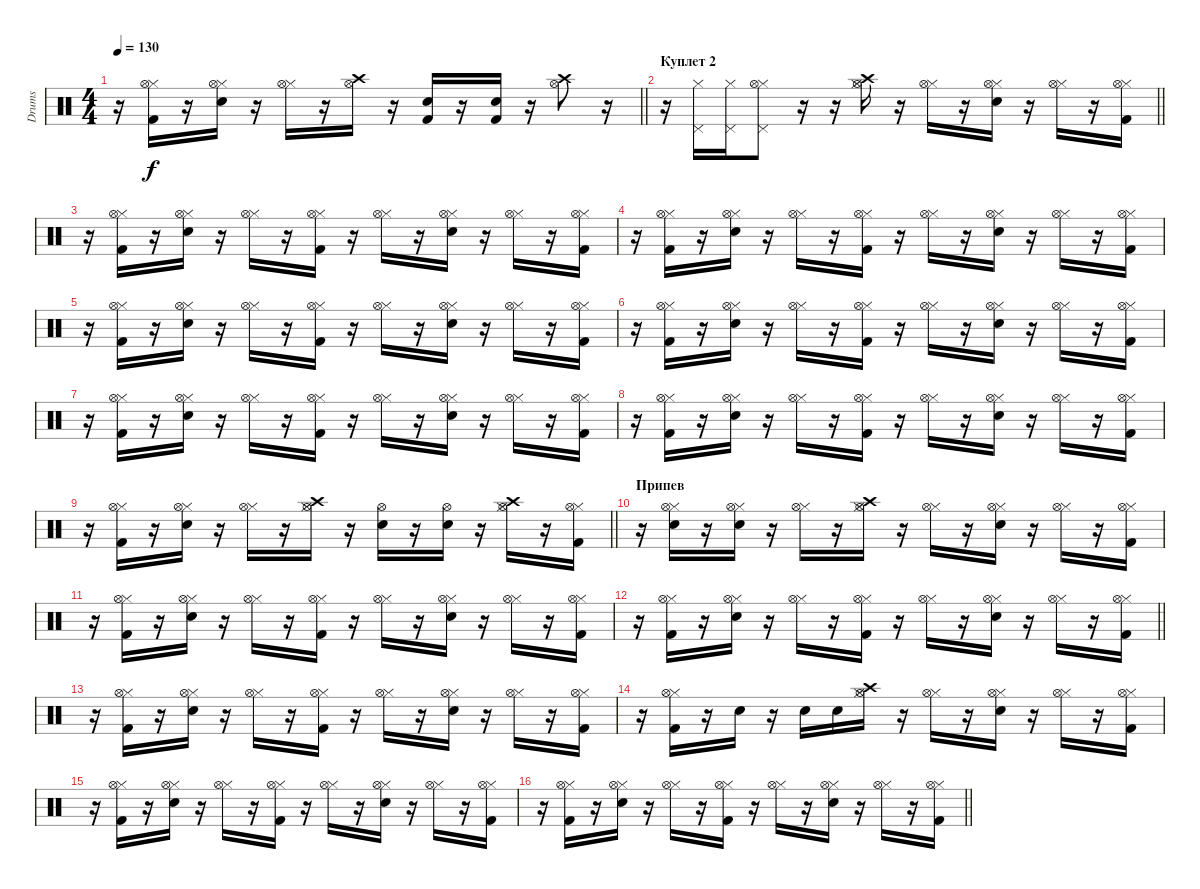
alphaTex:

\track ("Drums" "Drums") {instrument percussion}
\staff {score}
\articulation defaults
\ts (4 4)
\tempo 130
\clef neutral
\barLineRight lightlight
\ks c
r.16{dy f} ("Kick (hit) 2" "Hi-Hat (closed)" "Hi-Hat (open)").16 r.16 ("Snare (hit) 2" "Hi-Hat (closed)" "Hi-Hat (open)").16 r.16 ("Hi-Hat (closed)" "Hi-Hat (open)").16 r.16 ("Crash high (hit)" "Hi-Hat (open)").16 r.16 ("Snare (hit) 2" "Kick (hit) 2").16 r.16 ("Snare (hit) 2" "Kick (hit) 2").16 r.16 ("Crash high (hit)" "Hi-Hat (open)").8 r.16 |
\section ("" "Куплет 2")
\barLineRight lightlight
r.16 ("Hi-Hat (closed)" "Pedal Hi-Hat (hit)").16 ("Hi-Hat (closed)" "Pedal Hi-Hat (hit)").16 ("Pedal Hi-Hat (hit)" "Hi-Hat (closed)" "Hi-Hat (open)").8 r.16 r.16 ("Crash high (hit)" "Hi-Hat (closed)" "Hi-Hat (open)").16 r.16 ("Hi-Hat (closed)" "Hi-Hat (open)").16 r.16 ("Snare (hit) 2" "Hi-Hat (closed)" "Hi-Hat (open)").16 r.16 ("Hi-Hat (closed)" "Hi-Hat (open)").16 r.16 ("Kick (hit) 2" "Hi-Hat (closed)" "Hi-Hat (open)").16 |
\section ("" "")
r.16 ("Kick (hit) 2" "Hi-Hat (closed)" "Hi-Hat (open)").16 r.16 ("Snare (hit) 2" "Hi-Hat (closed)" "Hi-Hat (open)").16 r.16 ("Hi-Hat (closed)" "Hi-Hat (open)").16 r.16 ("Kick (hit) 2" "Hi-Hat (closed)" "Hi-Hat (open)").16 r.16 ("Hi-Hat (closed)" "Hi-Hat (open)").16 r.16 ("Snare (hit) 2" "Hi-Hat (closed)" "Hi-Hat (open)").16 r.16 ("Hi-Hat (closed)" "Hi-Hat (open)").16 r.16 ("Kick (hit) 2" "Hi-Hat (closed)" "Hi-Hat (open)").16 |
r.16 ("Kick (hit) 2" "Hi-Hat (closed)" "Hi-Hat (open)").16 r.16 ("Snare (hit) 2" "Hi-Hat (closed)" "Hi-Hat (open)").16 r.16 ("Hi-Hat (closed)" "Hi-Hat (open)").16 r.16 ("Kick (hit) 2" "Hi-Hat (closed)" "Hi-Hat (open)").16 r.16 ("Hi-Hat (closed)" "Hi-Hat (open)").16 r.16 ("Snare (hit) 2" "Hi-Hat (closed)" "Hi-Hat (open)").16 r.16 ("Hi-Hat (closed)" "Hi-Hat (open)").16 r.16 ("Kick (hit) 2" "Hi-Hat (closed)" "Hi-Hat (open)").16 |
r.16 ("Kick (hit) 2" "Hi-Hat (closed)" "Hi-Hat (open)").16 r.16 ("Snare (hit) 2" "Hi-Hat (closed)" "Hi-Hat (open)").16 r.16 ("Hi-Hat (closed)" "Hi-Hat (open)").16 r.16 ("Kick (hit) 2" "Hi-Hat (closed)" "Hi-Hat (open)").16 r.16 ("Hi-Hat (closed)" "Hi-Hat (open)").16 r.16 ("Snare (hit) 2" "Hi-Hat (closed)" "Hi-Hat (open)").16 r.16 ("Hi-Hat (closed)" "Hi-Hat (open)").16 r.16 ("Kick (hit) 2" "Hi-Hat (closed)" "Hi-Hat (open)").16 |
r.16 ("Kick (hit) 2" "Hi-Hat (closed)" "Hi-Hat (open)").16 r.16 ("Snare (hit) 2" "Hi-Hat (closed)" "Hi-Hat (open)").16 r.16 ("Hi-Hat (closed)" "Hi-Hat (open)").16 r.16 ("Kick (hit) 2" "Hi-Hat (closed)" "Hi-Hat (open)").16 r.16 ("Hi-Hat (closed)" "Hi-Hat (open)").16 r.16 ("Snare (hit) 2" "Hi-Hat (closed)" "Hi-Hat (open)").16 r.16 ("Hi-Hat (closed)" "Hi-Hat (open)").16 r.16 ("Kick (hit) 2" "Hi-Hat (closed)" "Hi-Hat (open)").16 |
r.16 ("Kick (hit) 2" "Hi-Hat (closed)" "Hi-Hat (open)").16 r.16 ("Snare (hit) 2" "Hi-Hat (closed)" "Hi-Hat (open)").16 r.16 ("Hi-Hat (closed)" "Hi-Hat (open)").16 r.16 ("Kick (hit) 2" "Hi-Hat (closed)" "Hi-Hat (open)").16 r.16 ("Hi-Hat (closed)" "Hi-Hat (open)").16 r.16 ("Snare (hit) 2" "Hi-Hat (closed)" "Hi-Hat (open)").16 r.16 ("Hi-Hat (closed)" "Hi-Hat (open)").16 r.16 ("Kick (hit) 2" "Hi-Hat (closed)" "Hi-Hat (open)").16 |
r.16 ("Kick (hit) 2" "Hi-Hat (closed)" "Hi-Hat (open)").16 r.16 ("Snare (hit) 2" "Hi-Hat (closed)" "Hi-Hat (open)").16 r.16 ("Hi-Hat (closed)" "Hi-Hat (open)").16 r.16 ("Kick (hit) 2" "Hi-Hat (closed)" "Hi-Hat (open)").16 r.16 ("Hi-Hat (closed)" "Hi-Hat (open)").16 r.16 ("Snare (hit) 2" "Hi-Hat (closed)" "Hi-Hat (open)").16 r.16 ("Hi-Hat (closed)" "Hi-Hat (open)").16 r.16 ("Kick (hit) 2" "Hi-Hat (closed)" "Hi-Hat (open)").16 |
\barLineRight lightlight
r.16 ("Kick (hit) 2" "Hi-Hat (closed)" "Hi-Hat (open)").16 r.16 ("Snare (hit) 2" "Hi-Hat (closed)" "Hi-Hat (open)").16 r.16 ("Hi-Hat (closed)" "Hi-Hat (open)").16 r.16 ("Crash high (hit)" "Hi-Hat (closed)" "Hi-Hat (open)").16 r.16 ("Snare (hit) 2" "Hi-Hat (open)").16 r.16 ("Snare (hit) 2" "Hi-Hat (open)").16 r.16 ("Crash high (hit)" "Hi-Hat (closed)" "Hi-Hat (open)").16 r.16 ("Kick (hit) 2" "Hi-Hat (closed)" "Hi-Hat (open)").16 |
\section ("" "Припев")
r.16 ("Snare (hit) 2" "Hi-Hat (closed)" "Hi-Hat (open)").16 r.16 ("Snare (hit) 2" "Hi-Hat (closed)" "Hi-Hat (open)").16 r.16 ("Hi-Hat (closed)" "Hi-Hat (open)").16 r.16 ("Crash high (hit)" "Hi-Hat (closed)" "Hi-Hat (open)").16 r.16 ("Hi-Hat (closed)" "Hi-Hat (open)").16 r.16 ("Snare (hit) 2" "Hi-Hat (closed)" "Hi-Hat (open)").16 r.16 ("Hi-Hat (closed)" "Hi-Hat (open)").16 r.16 ("Kick (hit) 2" "Hi-Hat (closed)" "Hi-Hat (open)").16 |
r.16 ("Kick (hit) 2" "Hi-Hat (closed)" "Hi-Hat (open)").16 r.16 ("Snare (hit) 2" "Hi-Hat (closed)" "Hi-Hat (open)").16 r.16 ("Hi-Hat (closed)" "Hi-Hat (open)").16 r.16 ("Kick (hit) 2" "Hi-Hat (closed)" "Hi-Hat (open)").16 r.16 ("Hi-Hat (closed)" "Hi-Hat (open)").16 r.16 ("Snare (hit) 2" "Hi-Hat (closed)" "Hi-Hat (open)").16 r.16 ("Hi-Hat (closed)" "Hi-Hat (open)").16 r.16 ("Kick (hit) 2" "Hi-Hat (closed)" "Hi-Hat (open)").16 |
\barLineRight lightlight
r.16 ("Kick (hit) 2" "Hi-Hat (closed)" "Hi-Hat (open)").16 r.16 ("Snare (hit) 2" "Hi-Hat (closed)" "Hi-Hat (open)").16 r.16 ("Hi-Hat (closed)" "Hi-Hat (open)").16 r.16 ("Kick (hit) 2" "Hi-Hat (closed)" "Hi-Hat (open)").16 r.16 ("Hi-Hat (closed)" "Hi-Hat (open)").16 r.16 ("Snare (hit) 2" "Hi-Hat (closed)" "Hi-Hat (open)").16 r.16 ("Hi-Hat (closed)" "Hi-Hat (open)").16 r.16 ("Kick (hit) 2" "Hi-Hat (closed)" "Hi-Hat (open)").16 |
r.16 ("Kick (hit) 2" "Hi-Hat (closed)" "Hi-Hat (open)").16 r.16 ("Snare (hit) 2" "Hi-Hat (closed)" "Hi-Hat (open)").16 r.16 ("Hi-Hat (closed)" "Hi-Hat (open)").16 r.16 ("Kick (hit) 2" "Hi-Hat (closed)" "Hi-Hat (open)").16 r.16 ("Hi-Hat (closed)" "Hi-Hat (open)").16 r.16 ("Snare (hit) 2" "Hi-Hat (closed)" "Hi-Hat (open)").16 r.16 ("Hi-Hat (closed)" "Hi-Hat (open)").16 r.16 ("Kick (hit) 2" "Hi-Hat (closed)" "Hi-Hat (open)").16 |
r.16 ("Kick (hit) 2" "Hi-Hat (closed)" "Hi-Hat (open)").16 r.16 "Snare (hit) 2".16 r.16 "Snare (hit) 2".16 "Snare (hit) 2".16 ("Crash high (hit)" "Hi-Hat (closed)" "Hi-Hat (open)").16 r.16 ("Hi-Hat (closed)" "Hi-Hat (open)").16 r.16 ("Snare (hit) 2" "Hi-Hat (closed)" "Hi-Hat (open)").16 r.16 ("Hi-Hat (closed)" "Hi-Hat (open)").16 r.16 ("Kick (hit) 2" "Hi-Hat (closed)" "Hi-Hat (open)").16 |
r.16 ("Kick (hit) 2" "Hi-Hat (closed)" "Hi-Hat (open)").16 r.16 ("Snare (hit) 2" "Hi-Hat (closed)" "Hi-Hat (open)").16 r.16 ("Hi-Hat (closed)" "Hi-Hat (open)").16 r.16 ("Kick (hit) 2" "Hi-Hat (closed)" "Hi-Hat (open)").16 r.16 ("Hi-Hat (closed)" "Hi-Hat (open)").16 r.16 ("Snare (hit) 2" "Hi-Hat (closed)" "Hi-Hat (open)").16 r.16 ("Hi-Hat (closed)" "Hi-Hat (open)").16 r.16 ("Kick (hit) 2" "Hi-Hat (closed)" "Hi-Hat (open)").16 |
\barLineRight lightlight
r.16 ("Kick (hit) 2" "Hi-Hat (closed)" "Hi-Hat (open)").16 r.16 ("Snare (hit) 2" "Hi-Hat (closed)" "Hi-Hat (open)").16 r.16 ("Hi-Hat (closed)" "Hi-Hat (open)").16 r.16 ("Kick (hit) 2" "Hi-Hat (closed)" "Hi-Hat (open)").16 r.16 ("Hi-Hat (closed)" "Hi-Hat (open)").16 r.16 ("Snare (hit) 2" "Hi-Hat (closed)" "Hi-Hat (open)").16 r.16 ("Hi-Hat (closed)" "Hi-Hat (open)").16 r.16 ("Kick (hit) 2" "Hi-Hat (closed)" "Hi-Hat (open)").16
